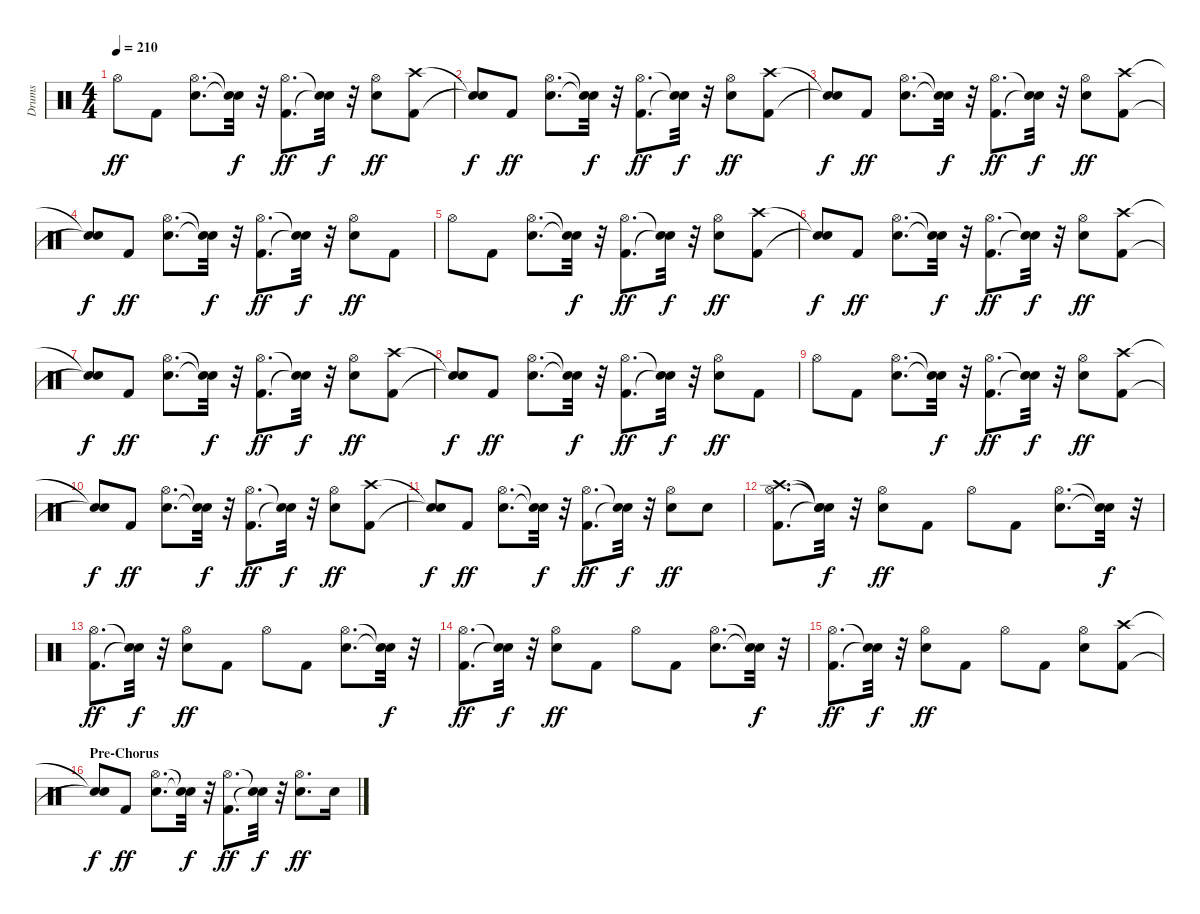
\track ("Drums" "Drums") {instrument percussion}
\staff {score}
\articulation defaults
\ts (4 4)
\tempo 210
\clef neutral
\ks c "Hi-Hat (open)".8{dy ff} "Kick (hit) 2".8
("Snare (hit) 2" "Hi-Hat (open)").8{d} ("Snare (hit)"{t} "Snare (hit)"{t}).32{dy f} r.32 ("Kick (hit) 2" "Hi-Hat (open)").8{d dy ff} ("Snare (hit)"{t} "Snare (hit)"{t}).32{dy f} r.32 ("Snare (hit) 2" "Hi-Hat (open)").8{dy ff} ("Kick (hit) 2" "Crash high (hit)").8 |
("Snare (hit)"{t} "Snare (hit)"{t}).8{dy f} "Kick (hit) 2".8{dy ff} ("Snare (hit) 2" "Hi-Hat (open)").8{d} ("Snare (hit)"{t} "Snare (hit)"{t}).32{dy f} r.32 ("Kick (hit) 2" "Hi-Hat (open)").8{d dy ff} ("Snare (hit)"{t} "Snare (hit)"{t}).32{dy f} r.32 ("Snare (hit) 2" "Hi-Hat (open)").8{dy ff} ("Kick (hit) 2" "Crash high (hit)").8 |
("Snare (hit)"{t} "Snare (hit)"{t}).8{dy f} "Kick (hit) 2".8{dy ff} ("Snare (hit) 2" "Hi-Hat (open)").8{d} ("Snare (hit)"{t} "Snare (hit)"{t}).32{dy f} r.32 ("Kick (hit) 2" "Hi-Hat (open)").8{d dy ff} ("Snare (hit)"{t} "Snare (hit)"{t}).32{dy f} r.32 ("Snare (hit) 2" "Hi-Hat (open)").8{dy ff} ("Kick (hit) 2" "Crash high (hit)").8 |
("Snare (hit)"{t} "Snare (hit)"{t}).8{dy f} "Kick (hit) 2".8{dy ff} ("Snare (hit) 2" "Hi-Hat (open)").8{d} ("Snare (hit)"{t} "Snare (hit)"{t}).32{dy f} r.32 ("Kick (hit) 2" "Hi-Hat (open)").8{d dy ff} ("Snare (hit)"{t} "Snare (hit)"{t}).32{dy f} r.32 ("Snare (hit) 2" "Hi-Hat (open)").8{dy ff} "Kick (hit) 2".8 |
"Hi-Hat (open)".8 "Kick (hit) 2".8 ("Snare (hit) 2" "Hi-Hat (open)").8{d} ("Snare (hit)"{t} "Snare (hit)"{t}).32{dy f} r.32 ("Kick (hit) 2" "Hi-Hat (open)").8{d dy ff} ("Snare (hit)"{t} "Snare (hit)"{t}).32{dy f} r.32 ("Snare (hit) 2" "Hi-Hat (open)").8{dy ff} ("Kick (hit) 2" "Crash high (hit)").8 |
("Snare (hit)"{t} "Snare (hit)"{t}).8{dy f} "Kick (hit) 2".8{dy ff} ("Snare (hit) 2" "Hi-Hat (open)").8{d} ("Snare (hit)"{t} "Snare (hit)"{t}).32{dy f} r.32 ("Kick (hit) 2" "Hi-Hat (open)").8{d dy ff} ("Snare (hit)"{t} "Snare (hit)"{t}).32{dy f} r.32 ("Snare (hit) 2" "Hi-Hat (open)").8{dy ff} ("Kick (hit) 2" "Crash high (hit)").8 |
("Snare (hit)"{t} "Snare (hit)"{t}).8{dy f} "Kick (hit) 2".8{dy ff} ("Snare (hit) 2" "Hi-Hat (open)").8{d} ("Snare (hit)"{t} "Snare (hit)"{t}).32{dy f} r.32 ("Kick (hit) 2" "Hi-Hat (open)").8{d dy ff} ("Snare (hit)"{t} "Snare (hit)"{t}).32{dy f} r.32 ("Snare (hit) 2" "Hi-Hat (open)").8{dy ff} ("Kick (hit) 2" "Crash high (hit)").8 |
("Snare (hit)"{t} "Snare (hit)"{t}).8{dy f} "Kick (hit) 2".8{dy ff} ("Snare (hit) 2" "Hi-Hat (open)").8{d} ("Snare (hit)"{t} "Snare (hit)"{t}).32{dy f} r.32 ("Kick (hit) 2" "Hi-Hat (open)").8{d dy ff} ("Snare (hit)"{t} "Snare (hit)"{t}).32{dy f} r.32 ("Snare (hit) 2" "Hi-Hat (open)").8{dy ff} "Kick (hit) 2".8 |
"Hi-Hat (open)".8 "Kick (hit) 2".8 ("Snare (hit) 2" "Hi-Hat (open)").8{d} ("Snare (hit)"{t} "Snare (hit)"{t}).32{dy f} r.32 ("Kick (hit) 2" "Hi-Hat (open)").8{d dy ff} ("Snare (hit)"{t} "Snare (hit)"{t}).32{dy f} r.32 ("Snare (hit) 2" "Hi-Hat (open)").8{dy ff} ("Kick (hit) 2" "Crash high (hit)").8 |
("Snare (hit)"{t} "Snare (hit)"{t}).8{dy f} "Kick (hit) 2".8{dy ff} ("Snare (hit) 2" "Hi-Hat (open)").8{d} ("Snare (hit)"{t} "Snare (hit)"{t}).32{dy f} r.32 ("Kick (hit) 2" "Hi-Hat (open)").8{d dy ff} ("Snare (hit)"{t} "Snare (hit)"{t}).32{dy f} r.32 ("Snare (hit) 2" "Hi-Hat (open)").8{dy ff} ("Kick (hit) 2" "Crash high (hit)").8 |
("Snare (hit)"{t} "Snare (hit)"{t}).8{dy f} "Kick (hit) 2".8{dy ff} ("Snare (hit) 2" "Hi-Hat (open)").8{d} ("Snare (hit)"{t} "Snare (hit)"{t}).32{dy f} r.32 ("Kick (hit) 2" "Hi-Hat (open)").8{d dy ff} ("Snare (hit)"{t} "Snare (hit)"{t}).32{dy f} r.32 ("Snare (hit) 2" "Hi-Hat (open)").8{dy ff} "Snare (hit) 2".8 |
("Kick (hit) 2" "Hi-Hat (open)" "Crash high (hit)").8{d} ("Snare (hit)"{t} "Snare (hit)"{t} "Snare (hit)"{t}).32{dy f} r.32 ("Snare (hit) 2" "Hi-Hat (open)").8{dy ff} "Kick (hit) 2".8 "Hi-Hat (open)".8 "Kick (hit) 2".8 ("Snare (hit) 2" "Hi-Hat (open)").8{d} ("Snare (hit)"{t} "Snare (hit)"{t}).32{dy f} r.32 |
("Kick (hit) 2" "Hi-Hat (open)").8{d dy ff} ("Snare (hit)"{t} "Snare (hit)"{t}).32{dy f} r.32 ("Snare (hit) 2" "Hi-Hat (open)").8{dy ff} "Kick (hit) 2".8 "Hi-Hat (open)".8 "Kick (hit) 2".8 ("Snare (hit) 2" "Hi-Hat (open)").8{d} ("Snare (hit)"{t} "Snare (hit)"{t}).32{dy f} r.32 |
("Kick (hit) 2" "Hi-Hat (open)").8{d dy ff} ("Snare (hit)"{t} "Snare (hit)"{t}).32{dy f} r.32 ("Snare (hit) 2" "Hi-Hat (open)").8{dy ff} "Kick (hit) 2".8 "Hi-Hat (open)".8 "Kick (hit) 2".8 ("Snare (hit) 2" "Hi-Hat (open)").8{d} ("Snare (hit)"{t} "Snare (hit)"{t}).32{dy f} r.32 |
("Kick (hit) 2" "Hi-Hat (open)").8{d dy ff} ("Snare (hit)"{t} "Snare (hit)"{t}).32{dy f} r.32 ("Snare (hit) 2" "Hi-Hat (open)").8{dy ff} "Kick (hit) 2".8 "Hi-Hat (open)".8 "Kick (hit) 2".8 ("Snare (hit) 2" "Hi-Hat (open)").8 ("Kick (hit) 2" "Crash high (hit)").8 |
\section ("" "Pre-Chorus")
("Snare (hit)"{t} "Snare (hit)"{t}).8{dy f} "Kick (hit) 2".8{dy ff} ("Snare (hit) 2" "Hi-Hat (open)").8{d} ("Snare (hit)"{t} "Snare (hit)"{t}).32{dy f} r.32 ("Kick (hit) 2" "Hi-Hat (open)").8{d dy ff} ("Snare (hit)"{t} "Snare (hit)"{t}).32{dy f} r.32 ("Snare (hit) 2" "Hi-Hat (open)").8{d dy ff} "Snare (hit) 2".16
